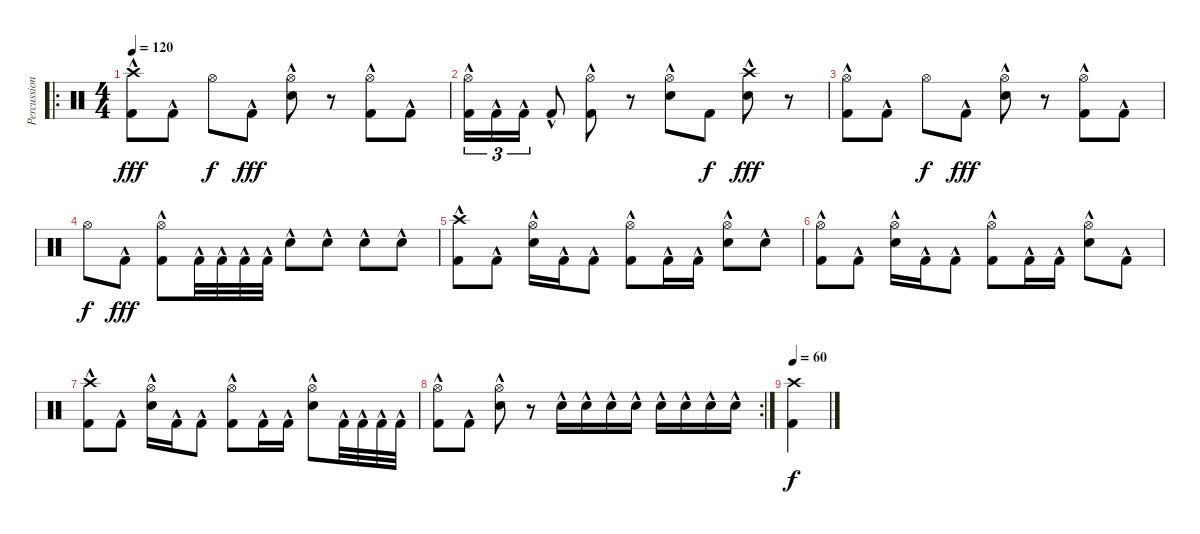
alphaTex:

\track ("Percussion" "Percussion") {instrument percussion}
\staff {score}
\articulation defaults
\ro
\ts (4 4)
\tempo 120
\clef neutral
\ks c
("Crash high (hit)" "Kick (hit) 2"{hac}).8{dy fff} "Kick (hit) 2"{hac}.8 "Hi-Hat (open)".8{dy f} "Kick (hit) 2"{hac}.8{dy fff} ("Hi-Hat (open)" "Electric Snare (hit)"{hac}).8 r.8 ("Hi-Hat (open)" "Kick (hit) 2"{hac}).8 "Kick (hit) 2"{hac}.8 |
("Hi-Hat (open)" "Kick (hit) 2"{hac}).16{tu (3 2)} "Kick (hit) 2"{hac}.16{tu (3 2)} "Kick (hit) 2"{hac}.16{tu (3 2)} "Kick (hit) 2"{hac}.8 ("Hi-Hat (open)" "Kick (hit) 2"{hac}).8 r.8 ("Hi-Hat (open)" "Electric Snare (hit)"{hac}).8 "Kick (hit) 2".8{dy f} ("Crash high (hit)" "Electric Snare (hit)"{hac}).8{dy fff} r.8 |
("Hi-Hat (open)" "Kick (hit) 2"{hac}).8 "Kick (hit) 2"{hac}.8 "Hi-Hat (open)".8{dy f} "Kick (hit) 2"{hac}.8{dy fff} ("Hi-Hat (open)" "Electric Snare (hit)"{hac}).8 r.8 ("Hi-Hat (open)" "Kick (hit) 2"{hac}).8 "Kick (hit) 2"{hac}.8 |
"Hi-Hat (open)".8{dy f} "Kick (hit) 2"{hac}.8{dy fff} ("Hi-Hat (open)" "Kick (hit) 2"{hac}).8 "Kick (hit) 2"{hac}.32 "Kick (hit) 2"{hac}.32 "Kick (hit) 2"{hac}.32 "Kick (hit) 2"{hac}.32 "Electric Snare (hit)"{hac}.8 "Electric Snare (hit)"{hac}.8 "Electric Snare (hit)"{hac}.8 "Electric Snare (hit)"{hac}.8 |
("Kick (hit) 2"{hac} "Crash high (hit)").8 "Kick (hit) 2"{hac}.8 ("Electric Snare (hit)"{hac} "Hi-Hat (open)").16 "Kick (hit) 2"{hac}.16 "Kick (hit) 2"{hac}.8 ("Kick (hit) 2"{hac} "Hi-Hat (open)").8 "Kick (hit) 2"{hac}.16 "Kick (hit) 2"{hac}.16 ("Electric Snare (hit)"{hac} "Hi-Hat (open)").8 "Electric Snare (hit)"{hac}.8 |
("Kick (hit) 2"{hac} "Hi-Hat (open)").8 "Kick (hit) 2"{hac}.8 ("Electric Snare (hit)"{hac} "Hi-Hat (open)").16 "Kick (hit) 2"{hac}.16 "Kick (hit) 2"{hac}.8 ("Kick (hit) 2"{hac} "Hi-Hat (open)").8 "Kick (hit) 2"{hac}.16 "Kick (hit) 2"{hac}.16 ("Electric Snare (hit)"{hac} "Hi-Hat (open)").8 "Kick (hit) 2"{hac}.8 |
("Kick (hit) 2"{hac} "Crash high (hit)").8 "Kick (hit) 2"{hac}.8 ("Electric Snare (hit)"{hac} "Hi-Hat (open)").16 "Kick (hit) 2"{hac}.16 "Kick (hit) 2"{hac}.8 ("Kick (hit) 2"{hac} "Hi-Hat (open)").8 "Kick (hit) 2"{hac}.16 "Kick (hit) 2"{hac}.16 ("Electric Snare (hit)"{hac} "Hi-Hat (open)").8 "Kick (hit) 2"{hac}.32 "Kick (hit) 2"{hac}.32 "Kick (hit) 2"{hac}.32 "Kick (hit) 2"{hac}.32 |
\rc 2
("Kick (hit) 2"{hac} "Hi-Hat (open)").8 "Kick (hit) 2"{hac}.8 ("Electric Snare (hit)"{hac} "Hi-Hat (open)").8 r.8 "Electric Snare (hit)"{hac}.16 "Electric Snare (hit)"{hac}.16 "Electric Snare (hit)"{hac}.16 "Electric Snare (hit)"{hac}.16 "Electric Snare (hit)"{hac}.16 "Electric Snare (hit)"{hac}.16 "Electric Snare (hit)"{hac}.16 "Electric Snare (hit)"{hac}.16 |
\tempo 60
("Crash high (hit)" "Kick (hit) 2").4{dy f}
